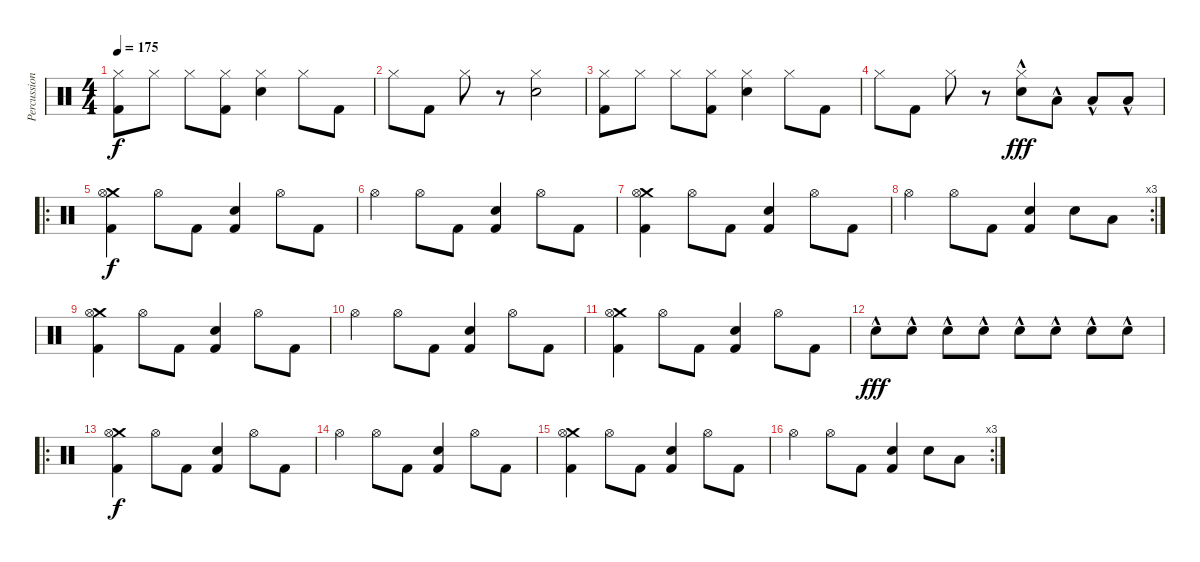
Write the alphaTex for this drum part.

\track ("Percussion" "Percussion") {instrument percussion}
\staff {score}
\articulation defaults
\ts (4 4)
\tempo 175
\clef neutral
\ks c
("Hi-Hat (closed)" "Kick (hit) 2").8{dy f} "Hi-Hat (closed)".8 "Hi-Hat (closed)".8 ("Hi-Hat (closed)" "Kick (hit) 2").8 ("Hi-Hat (closed)" "Snare (hit) 2").4 "Hi-Hat (closed)".8 "Kick (hit) 2".8 |
"Hi-Hat (closed)".8 "Kick (hit) 2".8 "Hi-Hat (closed)".8 r.8 ("Hi-Hat (closed)" "Snare (hit) 2").2 |
("Hi-Hat (closed)" "Kick (hit) 2").8 "Hi-Hat (closed)".8 "Hi-Hat (closed)".8 ("Hi-Hat (closed)" "Kick (hit) 2").8 ("Hi-Hat (closed)" "Snare (hit) 2").4 "Hi-Hat (closed)".8 "Kick (hit) 2".8 |
"Hi-Hat (closed)".8 "Kick (hit) 2".8 "Hi-Hat (closed)".8 r.8 ("Hi-Hat (closed)" "Snare (hit) 2"{hac}).8{dy fff} "Low Floor Tom (hit)"{hac}.8 "Low Floor Tom (hit)"{hac}.8 "Low Floor Tom (hit)"{hac}.8 |
\ro
("Crash medium (hit)" "Hi-Hat (open)" "Kick (hit) 2").4{dy f} "Hi-Hat (open)".8 "Kick (hit) 2".8 ("Kick (hit) 2" "Snare (hit) 2").4 "Hi-Hat (open)".8 "Kick (hit) 2".8 |
"Hi-Hat (open)".4 "Hi-Hat (open)".8 "Kick (hit) 2".8 ("Kick (hit) 2" "Snare (hit) 2").4 "Hi-Hat (open)".8 "Kick (hit) 2".8 |
("Crash medium (hit)" "Hi-Hat (open)" "Kick (hit) 2").4 "Hi-Hat (open)".8 "Kick (hit) 2".8 ("Kick (hit) 2" "Snare (hit) 2").4 "Hi-Hat (open)".8 "Kick (hit) 2".8 |
\rc 3 "Hi-Hat (open)".4 "Hi-Hat (open)".8 "Kick (hit) 2".8
("Kick (hit) 2" "Snare (hit) 2").4 "Snare (hit) 2".8 "Low Floor Tom (hit)".8 |
("Crash medium (hit)" "Hi-Hat (open)" "Kick (hit) 2").4 "Hi-Hat (open)".8 "Kick (hit) 2".8 ("Kick (hit) 2" "Snare (hit) 2").4 "Hi-Hat (open)".8 "Kick (hit) 2".8 |
"Hi-Hat (open)".4 "Hi-Hat (open)".8 "Kick (hit) 2".8 ("Kick (hit) 2" "Snare (hit) 2").4 "Hi-Hat (open)".8 "Kick (hit) 2".8 |
("Crash medium (hit)" "Hi-Hat (open)" "Kick (hit) 2").4 "Hi-Hat (open)".8 "Kick (hit) 2".8 ("Kick (hit) 2" "Snare (hit) 2").4 "Hi-Hat (open)".8 "Kick (hit) 2".8 |
"Snare (hit) 2"{hac}.8{dy fff} "Snare (hit) 2"{hac}.8 "Snare (hit) 2"{hac}.8 "Snare (hit) 2"{hac}.8 "Snare (hit) 2"{hac}.8 "Snare (hit) 2"{hac}.8 "Snare (hit) 2"{hac}.8 "Snare (hit) 2"{hac}.8 |
\ro
("Crash medium (hit)" "Hi-Hat (open)" "Kick (hit) 2").4{dy f} "Hi-Hat (open)".8 "Kick (hit) 2".8 ("Kick (hit) 2" "Snare (hit) 2").4 "Hi-Hat (open)".8 "Kick (hit) 2".8 |
"Hi-Hat (open)".4 "Hi-Hat (open)".8 "Kick (hit) 2".8 ("Kick (hit) 2" "Snare (hit) 2").4 "Hi-Hat (open)".8 "Kick (hit) 2".8 |
("Crash medium (hit)" "Hi-Hat (open)" "Kick (hit) 2").4 "Hi-Hat (open)".8 "Kick (hit) 2".8 ("Kick (hit) 2" "Snare (hit) 2").4 "Hi-Hat (open)".8 "Kick (hit) 2".8 |
\rc 3 "Hi-Hat (open)".4 "Hi-Hat (open)".8 "Kick (hit) 2".8
("Kick (hit) 2" "Snare (hit) 2").4 "Snare (hit) 2".8 "Low Floor Tom (hit)".8
